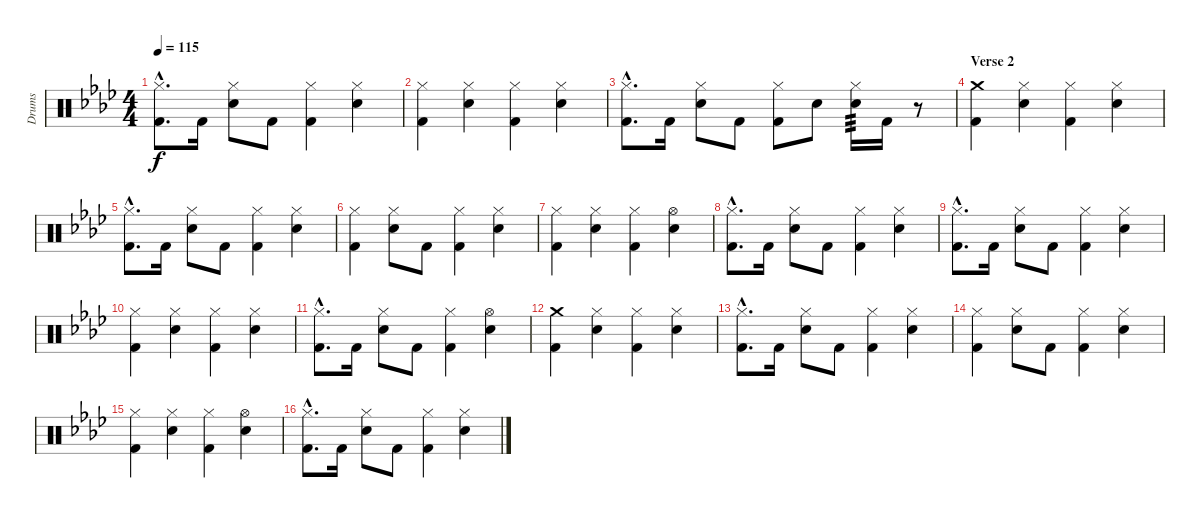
\track ("Drums" "Drums") {instrument percussion}
\staff {score}
\articulation defaults
\ts (4 4)
\tempo 115
\clef neutral
\ks ab
("Hi-Hat (closed)"{hac} "Kick (hit) 2"{hac}).8{d dy f} "Kick (hit) 2".16 ("Hi-Hat (closed)" "Snare (hit) 2").8 "Kick (hit) 2".8 ("Hi-Hat (closed)" "Kick (hit) 2").4 ("Hi-Hat (closed)" "Snare (hit) 2").4 |
("Hi-Hat (closed)" "Kick (hit) 2").4 ("Hi-Hat (closed)" "Snare (hit) 2").4 ("Hi-Hat (closed)" "Kick (hit) 2").4 ("Hi-Hat (closed)" "Snare (hit) 2").4 |
("Hi-Hat (closed)"{hac} "Kick (hit) 2"{hac}).8{d} "Kick (hit) 2".16 ("Hi-Hat (closed)" "Snare (hit) 2").8 "Kick (hit) 2".8 ("Hi-Hat (closed)" "Kick (hit) 2").8 "Snare (hit) 2".8 ("Hi-Hat (closed)" "Snare (hit) 2").16{tp 3} "Kick (hit) 2".16 r.8 |
\section ("" "Verse 2")
("Crash medium (hit)" "Kick (hit) 2").4 ("Hi-Hat (closed)" "Snare (hit) 2").4 ("Hi-Hat (closed)" "Kick (hit) 2").4 ("Hi-Hat (closed)" "Snare (hit) 2").4 |
("Hi-Hat (closed)"{hac} "Kick (hit) 2"{hac}).8{d} "Kick (hit) 2".16 ("Hi-Hat (closed)" "Snare (hit) 2").8 "Kick (hit) 2".8 ("Hi-Hat (closed)" "Kick (hit) 2").4 ("Hi-Hat (closed)" "Snare (hit) 2").4 |
("Hi-Hat (closed)" "Kick (hit) 2").4 ("Hi-Hat (closed)" "Snare (hit) 2").8 "Kick (hit) 2".8 ("Hi-Hat (closed)" "Kick (hit) 2").4 ("Hi-Hat (closed)" "Snare (hit) 2").4 |
("Hi-Hat (closed)" "Kick (hit) 2").4 ("Hi-Hat (closed)" "Snare (hit) 2").4 ("Hi-Hat (closed)" "Kick (hit) 2").4 ("Hi-Hat (open)" "Snare (hit) 2").4 |
("Hi-Hat (closed)"{hac} "Kick (hit) 2"{hac}).8{d} "Kick (hit) 2".16 ("Hi-Hat (closed)" "Snare (hit) 2").8 "Kick (hit) 2".8 ("Hi-Hat (closed)" "Kick (hit) 2").4 ("Hi-Hat (closed)" "Snare (hit) 2").4 |
("Hi-Hat (closed)"{hac} "Kick (hit) 2"{hac}).8{d} "Kick (hit) 2".16 ("Hi-Hat (closed)" "Snare (hit) 2").8 "Kick (hit) 2".8 ("Hi-Hat (closed)" "Kick (hit) 2").4 ("Hi-Hat (closed)" "Snare (hit) 2").4 |
("Hi-Hat (closed)" "Kick (hit) 2").4 ("Hi-Hat (closed)" "Snare (hit) 2").4 ("Hi-Hat (closed)" "Kick (hit) 2").4 ("Hi-Hat (closed)" "Snare (hit) 2").4 |
("Hi-Hat (closed)"{hac} "Kick (hit) 2"{hac}).8{d} "Kick (hit) 2".16 ("Hi-Hat (closed)" "Snare (hit) 2").8 "Kick (hit) 2".8 ("Hi-Hat (closed)" "Kick (hit) 2").4 ("Hi-Hat (open)" "Snare (hit) 2").4 |
("Crash medium (hit)" "Kick (hit) 2").4 ("Hi-Hat (closed)" "Snare (hit) 2").4 ("Hi-Hat (closed)" "Kick (hit) 2").4 ("Hi-Hat (closed)" "Snare (hit) 2").4 |
("Hi-Hat (closed)"{hac} "Kick (hit) 2"{hac}).8{d} "Kick (hit) 2".16 ("Hi-Hat (closed)" "Snare (hit) 2").8 "Kick (hit) 2".8 ("Hi-Hat (closed)" "Kick (hit) 2").4 ("Hi-Hat (closed)" "Snare (hit) 2").4 |
("Hi-Hat (closed)" "Kick (hit) 2").4 ("Hi-Hat (closed)" "Snare (hit) 2").8 "Kick (hit) 2".8 ("Hi-Hat (closed)" "Kick (hit) 2").4 ("Hi-Hat (closed)" "Snare (hit) 2").4 |
("Hi-Hat (closed)" "Kick (hit) 2").4 ("Hi-Hat (closed)" "Snare (hit) 2").4 ("Hi-Hat (closed)" "Kick (hit) 2").4 ("Hi-Hat (open)" "Snare (hit) 2").4 |
("Hi-Hat (closed)"{hac} "Kick (hit) 2"{hac}).8{d} "Kick (hit) 2".16 ("Hi-Hat (closed)" "Snare (hit) 2").8 "Kick (hit) 2".8 ("Hi-Hat (closed)" "Kick (hit) 2").4 ("Hi-Hat (closed)" "Snare (hit) 2").4
